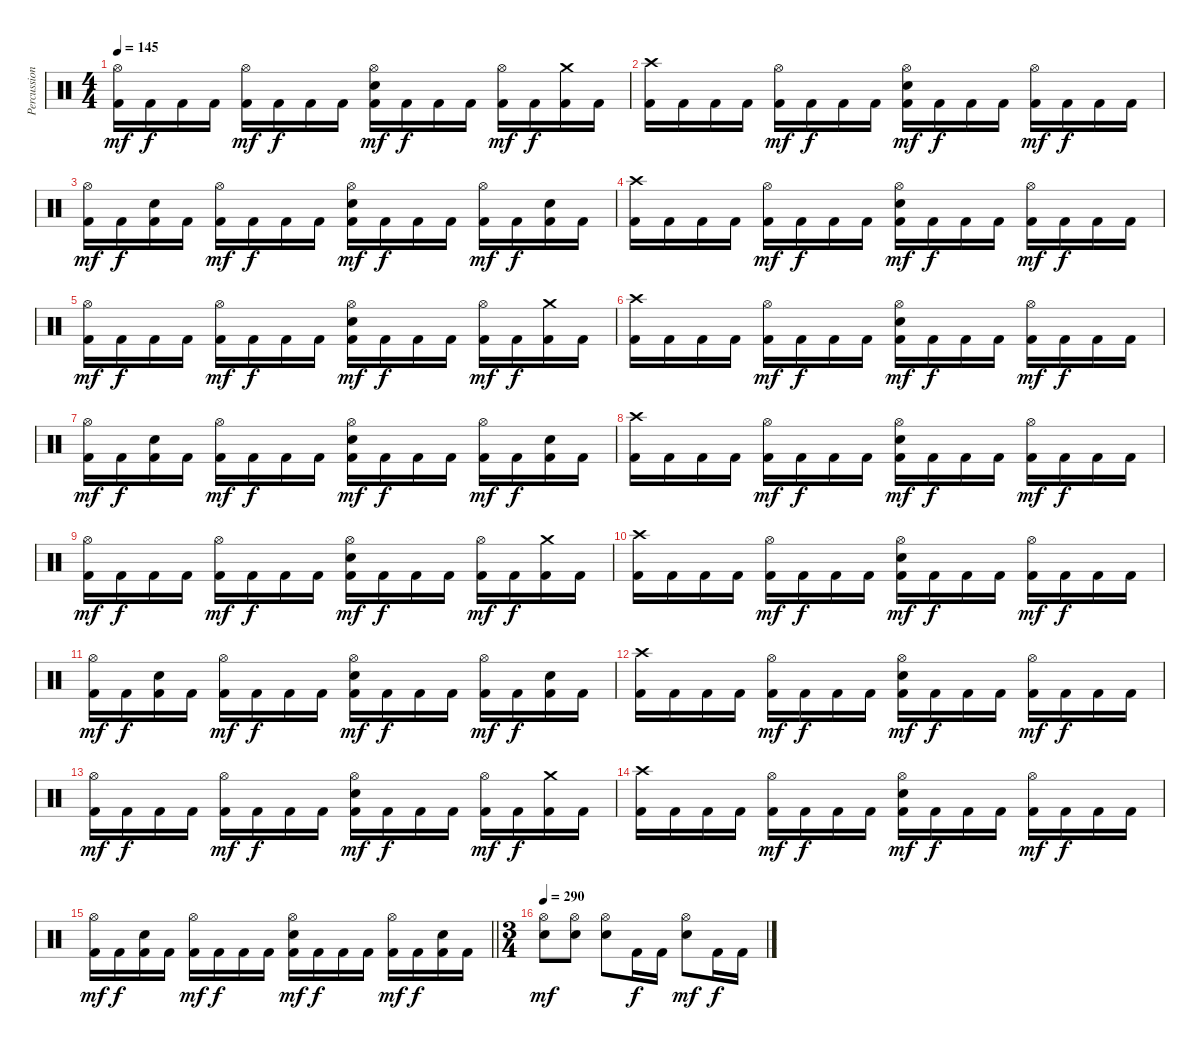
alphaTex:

\track ("Percussion" "Percussion") {instrument percussion}
\staff {score}
\articulation defaults
\ts (4 4)
\tempo 145
\clef neutral
\ks c
("Hi-Hat (open)" "Kick (hit) 2").16{dy mf} "Kick (hit) 2".16{dy f} "Kick (hit) 2".16 "Kick (hit) 2".16 ("Hi-Hat (open)" "Kick (hit) 2").16{dy mf} "Kick (hit) 2".16{dy f} "Kick (hit) 2".16 "Kick (hit) 2".16 ("Hi-Hat (open)" "Electric Snare (hit)" "Kick (hit) 2").16{dy mf} "Kick (hit) 2".16{dy f} "Kick (hit) 2".16 "Kick (hit) 2".16 ("Hi-Hat (open)" "Kick (hit) 2").16{dy mf} "Kick (hit) 2".16{dy f} ("Crash medium (hit)" "Kick (hit) 2").16 "Kick (hit) 2".16 |
("Crash high (hit)" "Kick (hit) 2").16 "Kick (hit) 2".16 "Kick (hit) 2".16 "Kick (hit) 2".16 ("Hi-Hat (open)" "Kick (hit) 2").16{dy mf} "Kick (hit) 2".16{dy f} "Kick (hit) 2".16 "Kick (hit) 2".16 ("Hi-Hat (open)" "Electric Snare (hit)" "Kick (hit) 2").16{dy mf} "Kick (hit) 2".16{dy f} "Kick (hit) 2".16 "Kick (hit) 2".16 ("Hi-Hat (open)" "Kick (hit) 2").16{dy mf} "Kick (hit) 2".16{dy f} "Kick (hit) 2".16 "Kick (hit) 2".16 |
("Hi-Hat (open)" "Kick (hit) 2").16{dy mf} "Kick (hit) 2".16{dy f} ("Electric Snare (hit)" "Kick (hit) 2").16 "Kick (hit) 2".16 ("Hi-Hat (open)" "Kick (hit) 2").16{dy mf} "Kick (hit) 2".16{dy f} "Kick (hit) 2".16 "Kick (hit) 2".16 ("Hi-Hat (open)" "Electric Snare (hit)" "Kick (hit) 2").16{dy mf} "Kick (hit) 2".16{dy f} "Kick (hit) 2".16 "Kick (hit) 2".16 ("Hi-Hat (open)" "Kick (hit) 2").16{dy mf} "Kick (hit) 2".16{dy f} ("Electric Snare (hit)" "Kick (hit) 2").16 "Kick (hit) 2".16 |
("Crash high (hit)" "Kick (hit) 2").16 "Kick (hit) 2".16 "Kick (hit) 2".16 "Kick (hit) 2".16 ("Hi-Hat (open)" "Kick (hit) 2").16{dy mf} "Kick (hit) 2".16{dy f} "Kick (hit) 2".16 "Kick (hit) 2".16 ("Hi-Hat (open)" "Electric Snare (hit)" "Kick (hit) 2").16{dy mf} "Kick (hit) 2".16{dy f} "Kick (hit) 2".16 "Kick (hit) 2".16 ("Hi-Hat (open)" "Kick (hit) 2").16{dy mf} "Kick (hit) 2".16{dy f} "Kick (hit) 2".16 "Kick (hit) 2".16 |
("Hi-Hat (open)" "Kick (hit) 2").16{dy mf} "Kick (hit) 2".16{dy f} "Kick (hit) 2".16 "Kick (hit) 2".16 ("Hi-Hat (open)" "Kick (hit) 2").16{dy mf} "Kick (hit) 2".16{dy f} "Kick (hit) 2".16 "Kick (hit) 2".16 ("Hi-Hat (open)" "Electric Snare (hit)" "Kick (hit) 2").16{dy mf} "Kick (hit) 2".16{dy f} "Kick (hit) 2".16 "Kick (hit) 2".16 ("Hi-Hat (open)" "Kick (hit) 2").16{dy mf} "Kick (hit) 2".16{dy f} ("Crash medium (hit)" "Kick (hit) 2").16 "Kick (hit) 2".16 |
("Crash high (hit)" "Kick (hit) 2").16 "Kick (hit) 2".16 "Kick (hit) 2".16 "Kick (hit) 2".16 ("Hi-Hat (open)" "Kick (hit) 2").16{dy mf} "Kick (hit) 2".16{dy f} "Kick (hit) 2".16 "Kick (hit) 2".16 ("Hi-Hat (open)" "Electric Snare (hit)" "Kick (hit) 2").16{dy mf} "Kick (hit) 2".16{dy f} "Kick (hit) 2".16 "Kick (hit) 2".16 ("Hi-Hat (open)" "Kick (hit) 2").16{dy mf} "Kick (hit) 2".16{dy f} "Kick (hit) 2".16 "Kick (hit) 2".16 |
("Hi-Hat (open)" "Kick (hit) 2").16{dy mf} "Kick (hit) 2".16{dy f} ("Electric Snare (hit)" "Kick (hit) 2").16 "Kick (hit) 2".16 ("Hi-Hat (open)" "Kick (hit) 2").16{dy mf} "Kick (hit) 2".16{dy f} "Kick (hit) 2".16 "Kick (hit) 2".16 ("Hi-Hat (open)" "Electric Snare (hit)" "Kick (hit) 2").16{dy mf} "Kick (hit) 2".16{dy f} "Kick (hit) 2".16 "Kick (hit) 2".16 ("Hi-Hat (open)" "Kick (hit) 2").16{dy mf} "Kick (hit) 2".16{dy f} ("Electric Snare (hit)" "Kick (hit) 2").16 "Kick (hit) 2".16 |
("Crash high (hit)" "Kick (hit) 2").16 "Kick (hit) 2".16 "Kick (hit) 2".16 "Kick (hit) 2".16 ("Hi-Hat (open)" "Kick (hit) 2").16{dy mf} "Kick (hit) 2".16{dy f} "Kick (hit) 2".16 "Kick (hit) 2".16 ("Hi-Hat (open)" "Electric Snare (hit)" "Kick (hit) 2").16{dy mf} "Kick (hit) 2".16{dy f} "Kick (hit) 2".16 "Kick (hit) 2".16 ("Hi-Hat (open)" "Kick (hit) 2").16{dy mf} "Kick (hit) 2".16{dy f} "Kick (hit) 2".16 "Kick (hit) 2".16 |
("Hi-Hat (open)" "Kick (hit) 2").16{dy mf} "Kick (hit) 2".16{dy f} "Kick (hit) 2".16 "Kick (hit) 2".16 ("Hi-Hat (open)" "Kick (hit) 2").16{dy mf} "Kick (hit) 2".16{dy f} "Kick (hit) 2".16 "Kick (hit) 2".16 ("Hi-Hat (open)" "Electric Snare (hit)" "Kick (hit) 2").16{dy mf} "Kick (hit) 2".16{dy f} "Kick (hit) 2".16 "Kick (hit) 2".16 ("Hi-Hat (open)" "Kick (hit) 2").16{dy mf} "Kick (hit) 2".16{dy f} ("Crash medium (hit)" "Kick (hit) 2").16 "Kick (hit) 2".16 |
("Crash high (hit)" "Kick (hit) 2").16 "Kick (hit) 2".16 "Kick (hit) 2".16 "Kick (hit) 2".16 ("Hi-Hat (open)" "Kick (hit) 2").16{dy mf} "Kick (hit) 2".16{dy f} "Kick (hit) 2".16 "Kick (hit) 2".16 ("Hi-Hat (open)" "Electric Snare (hit)" "Kick (hit) 2").16{dy mf} "Kick (hit) 2".16{dy f} "Kick (hit) 2".16 "Kick (hit) 2".16 ("Hi-Hat (open)" "Kick (hit) 2").16{dy mf} "Kick (hit) 2".16{dy f} "Kick (hit) 2".16 "Kick (hit) 2".16 |
("Hi-Hat (open)" "Kick (hit) 2").16{dy mf} "Kick (hit) 2".16{dy f} ("Electric Snare (hit)" "Kick (hit) 2").16 "Kick (hit) 2".16 ("Hi-Hat (open)" "Kick (hit) 2").16{dy mf} "Kick (hit) 2".16{dy f} "Kick (hit) 2".16 "Kick (hit) 2".16 ("Hi-Hat (open)" "Electric Snare (hit)" "Kick (hit) 2").16{dy mf} "Kick (hit) 2".16{dy f} "Kick (hit) 2".16 "Kick (hit) 2".16 ("Hi-Hat (open)" "Kick (hit) 2").16{dy mf} "Kick (hit) 2".16{dy f} ("Electric Snare (hit)" "Kick (hit) 2").16 "Kick (hit) 2".16 |
("Crash high (hit)" "Kick (hit) 2").16 "Kick (hit) 2".16 "Kick (hit) 2".16 "Kick (hit) 2".16 ("Hi-Hat (open)" "Kick (hit) 2").16{dy mf} "Kick (hit) 2".16{dy f} "Kick (hit) 2".16 "Kick (hit) 2".16 ("Hi-Hat (open)" "Electric Snare (hit)" "Kick (hit) 2").16{dy mf} "Kick (hit) 2".16{dy f} "Kick (hit) 2".16 "Kick (hit) 2".16 ("Hi-Hat (open)" "Kick (hit) 2").16{dy mf} "Kick (hit) 2".16{dy f} "Kick (hit) 2".16 "Kick (hit) 2".16 |
("Hi-Hat (open)" "Kick (hit) 2").16{dy mf} "Kick (hit) 2".16{dy f} "Kick (hit) 2".16 "Kick (hit) 2".16 ("Hi-Hat (open)" "Kick (hit) 2").16{dy mf} "Kick (hit) 2".16{dy f} "Kick (hit) 2".16 "Kick (hit) 2".16 ("Hi-Hat (open)" "Electric Snare (hit)" "Kick (hit) 2").16{dy mf} "Kick (hit) 2".16{dy f} "Kick (hit) 2".16 "Kick (hit) 2".16 ("Hi-Hat (open)" "Kick (hit) 2").16{dy mf} "Kick (hit) 2".16{dy f} ("Crash medium (hit)" "Kick (hit) 2").16 "Kick (hit) 2".16 |
("Crash high (hit)" "Kick (hit) 2").16 "Kick (hit) 2".16 "Kick (hit) 2".16 "Kick (hit) 2".16 ("Hi-Hat (open)" "Kick (hit) 2").16{dy mf} "Kick (hit) 2".16{dy f} "Kick (hit) 2".16 "Kick (hit) 2".16 ("Hi-Hat (open)" "Electric Snare (hit)" "Kick (hit) 2").16{dy mf} "Kick (hit) 2".16{dy f} "Kick (hit) 2".16 "Kick (hit) 2".16 ("Hi-Hat (open)" "Kick (hit) 2").16{dy mf} "Kick (hit) 2".16{dy f} "Kick (hit) 2".16 "Kick (hit) 2".16 |
\barLineRight lightlight
("Hi-Hat (open)" "Kick (hit) 2").16{dy mf} "Kick (hit) 2".16{dy f} ("Electric Snare (hit)" "Kick (hit) 2").16 "Kick (hit) 2".16 ("Hi-Hat (open)" "Kick (hit) 2").16{dy mf} "Kick (hit) 2".16{dy f} "Kick (hit) 2".16 "Kick (hit) 2".16 ("Hi-Hat (open)" "Electric Snare (hit)" "Kick (hit) 2").16{dy mf} "Kick (hit) 2".16{dy f} "Kick (hit) 2".16 "Kick (hit) 2".16 ("Hi-Hat (open)" "Kick (hit) 2").16{dy mf} "Kick (hit) 2".16{dy f} ("Electric Snare (hit)" "Kick (hit) 2").16 "Kick (hit) 2".16 |
\ts (3 4)
\section ("" "")
\tempo 290
("Hi-Hat (open)" "Electric Snare (hit)").8{dy mf} ("Hi-Hat (open)" "Electric Snare (hit)").8 ("Hi-Hat (open)" "Electric Snare (hit)").8 "Kick (hit) 2".16{dy f} "Kick (hit) 2".16 ("Hi-Hat (open)" "Electric Snare (hit)").8{dy mf} "Kick (hit) 2".16{dy f} "Kick (hit) 2".16
